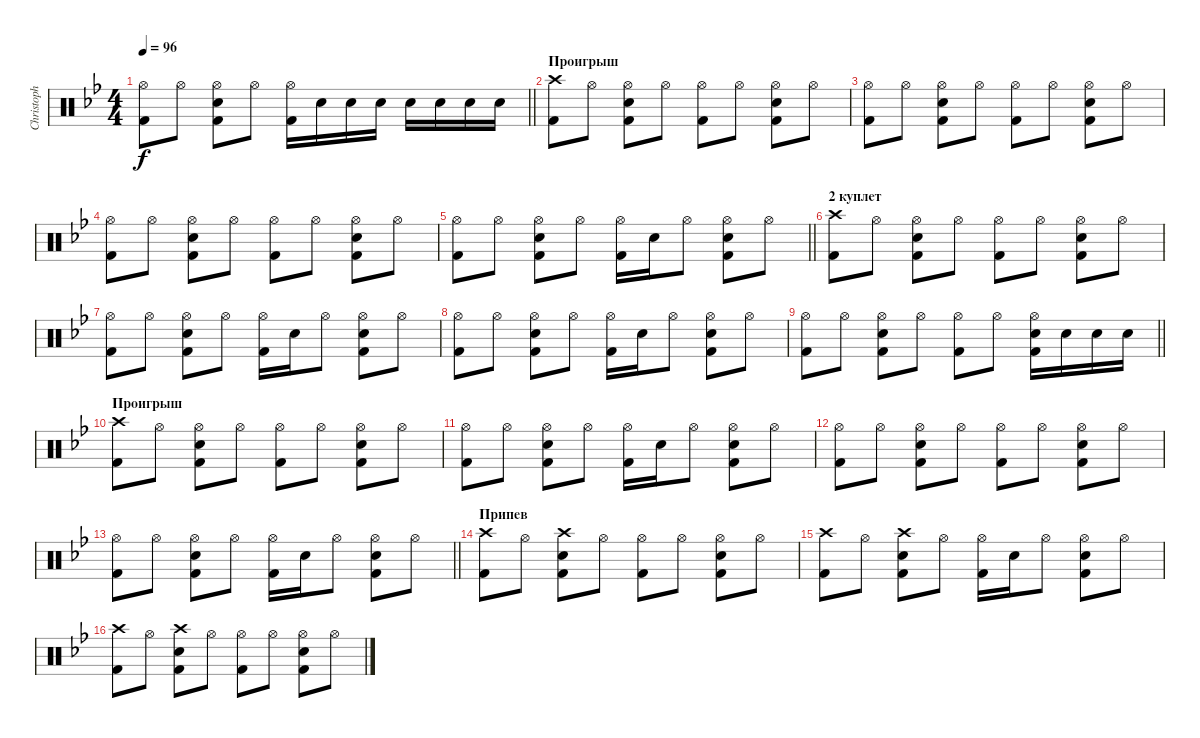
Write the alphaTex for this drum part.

\track ("Christoph Doom Schneider" "Christoph ") {instrument percussion}
\staff {score}
\articulation defaults
\ts (4 4)
\tempo 96
\clef neutral
\barLineRight lightlight
\ks bb
("Hi-Hat (open)" "Kick (hit) 2").8{dy f} "Hi-Hat (open)".8 ("Snare (hit) 2" "Hi-Hat (open)" "Kick (hit) 2").8 "Hi-Hat (open)".8 ("Hi-Hat (open)" "Kick (hit) 2").16 "Snare (hit) 2".16 "Snare (hit) 2".16 "Snare (hit) 2".16 "Snare (hit) 2".16 "Snare (hit) 2".16 "Snare (hit) 2".16 "Snare (hit) 2".16 |
\section ("" "Проигрыш")
("Crash high (hit)" "Kick (hit) 2").8 "Hi-Hat (open)".8 ("Snare (hit) 2" "Hi-Hat (open)" "Kick (hit) 2").8 "Hi-Hat (open)".8 ("Hi-Hat (open)" "Kick (hit) 2").8 "Hi-Hat (open)".8 ("Snare (hit) 2" "Hi-Hat (open)" "Kick (hit) 2").8 "Hi-Hat (open)".8 |
("Hi-Hat (open)" "Kick (hit) 2").8 "Hi-Hat (open)".8 ("Snare (hit) 2" "Hi-Hat (open)" "Kick (hit) 2").8 "Hi-Hat (open)".8 ("Hi-Hat (open)" "Kick (hit) 2").8 "Hi-Hat (open)".8 ("Snare (hit) 2" "Hi-Hat (open)" "Kick (hit) 2").8 "Hi-Hat (open)".8 |
("Hi-Hat (open)" "Kick (hit) 2").8 "Hi-Hat (open)".8 ("Snare (hit) 2" "Hi-Hat (open)" "Kick (hit) 2").8 "Hi-Hat (open)".8 ("Hi-Hat (open)" "Kick (hit) 2").8 "Hi-Hat (open)".8 ("Snare (hit) 2" "Hi-Hat (open)" "Kick (hit) 2").8 "Hi-Hat (open)".8 |
\barLineRight lightlight
("Hi-Hat (open)" "Kick (hit) 2").8 "Hi-Hat (open)".8 ("Snare (hit) 2" "Hi-Hat (open)" "Kick (hit) 2").8 "Hi-Hat (open)".8 ("Hi-Hat (open)" "Kick (hit) 2").16 "Snare (hit) 2".16 "Hi-Hat (open)".8 ("Snare (hit) 2" "Hi-Hat (open)" "Kick (hit) 2").8 "Hi-Hat (open)".8 |
\section ("" "2 куплет")
("Crash high (hit)" "Kick (hit) 2").8 "Hi-Hat (open)".8 ("Snare (hit) 2" "Hi-Hat (open)" "Kick (hit) 2").8 "Hi-Hat (open)".8 ("Hi-Hat (open)" "Kick (hit) 2").8 "Hi-Hat (open)".8 ("Snare (hit) 2" "Hi-Hat (open)" "Kick (hit) 2").8 "Hi-Hat (open)".8 |
("Hi-Hat (open)" "Kick (hit) 2").8 "Hi-Hat (open)".8 ("Snare (hit) 2" "Hi-Hat (open)" "Kick (hit) 2").8 "Hi-Hat (open)".8 ("Hi-Hat (open)" "Kick (hit) 2").16 "Snare (hit) 2".16 "Hi-Hat (open)".8 ("Snare (hit) 2" "Hi-Hat (open)" "Kick (hit) 2").8 "Hi-Hat (open)".8 |
("Hi-Hat (open)" "Kick (hit) 2").8 "Hi-Hat (open)".8 ("Snare (hit) 2" "Hi-Hat (open)" "Kick (hit) 2").8 "Hi-Hat (open)".8 ("Hi-Hat (open)" "Kick (hit) 2").16 "Snare (hit) 2".16 "Hi-Hat (open)".8 ("Snare (hit) 2" "Hi-Hat (open)" "Kick (hit) 2").8 "Hi-Hat (open)".8 |
\barLineRight lightlight
("Hi-Hat (open)" "Kick (hit) 2").8 "Hi-Hat (open)".8 ("Snare (hit) 2" "Hi-Hat (open)" "Kick (hit) 2").8 "Hi-Hat (open)".8 ("Hi-Hat (open)" "Kick (hit) 2").8 "Hi-Hat (open)".8 ("Snare (hit) 2" "Hi-Hat (open)" "Kick (hit) 2").16 "Snare (hit) 2".16 "Snare (hit) 2".16 "Snare (hit) 2".16 |
\section ("" "Проигрыш")
("Crash high (hit)" "Kick (hit) 2").8 "Hi-Hat (open)".8 ("Snare (hit) 2" "Hi-Hat (open)" "Kick (hit) 2").8 "Hi-Hat (open)".8 ("Hi-Hat (open)" "Kick (hit) 2").8 "Hi-Hat (open)".8 ("Snare (hit) 2" "Hi-Hat (open)" "Kick (hit) 2").8 "Hi-Hat (open)".8 |
("Hi-Hat (open)" "Kick (hit) 2").8 "Hi-Hat (open)".8 ("Snare (hit) 2" "Hi-Hat (open)" "Kick (hit) 2").8 "Hi-Hat (open)".8 ("Hi-Hat (open)" "Kick (hit) 2").16 "Snare (hit) 2".16 "Hi-Hat (open)".8 ("Snare (hit) 2" "Hi-Hat (open)" "Kick (hit) 2").8 "Hi-Hat (open)".8 |
("Hi-Hat (open)" "Kick (hit) 2").8 "Hi-Hat (open)".8 ("Snare (hit) 2" "Hi-Hat (open)" "Kick (hit) 2").8 "Hi-Hat (open)".8 ("Hi-Hat (open)" "Kick (hit) 2").8 "Hi-Hat (open)".8 ("Snare (hit) 2" "Hi-Hat (open)" "Kick (hit) 2").8 "Hi-Hat (open)".8 |
\barLineRight lightlight
("Hi-Hat (open)" "Kick (hit) 2").8 "Hi-Hat (open)".8 ("Snare (hit) 2" "Hi-Hat (open)" "Kick (hit) 2").8 "Hi-Hat (open)".8 ("Hi-Hat (open)" "Kick (hit) 2").16 "Snare (hit) 2".16 "Hi-Hat (open)".8 ("Snare (hit) 2" "Hi-Hat (open)" "Kick (hit) 2").8 "Hi-Hat (open)".8 |
\section ("" "Припев")
("Crash high (hit)" "Kick (hit) 2").8 "Hi-Hat (open)".8 ("Snare (hit) 2" "Kick (hit) 2" "Crash high (hit)").8 "Hi-Hat (open)".8 ("Hi-Hat (open)" "Kick (hit) 2").8 "Hi-Hat (open)".8 ("Snare (hit) 2" "Hi-Hat (open)" "Kick (hit) 2").8 "Hi-Hat (open)".8 |
("Crash high (hit)" "Kick (hit) 2").8 "Hi-Hat (open)".8 ("Snare (hit) 2" "Kick (hit) 2" "Crash high (hit)").8 "Hi-Hat (open)".8 ("Hi-Hat (open)" "Kick (hit) 2").16 "Snare (hit) 2".16 "Hi-Hat (open)".8 ("Snare (hit) 2" "Hi-Hat (open)" "Kick (hit) 2").8 "Hi-Hat (open)".8 |
("Crash high (hit)" "Kick (hit) 2").8 "Hi-Hat (open)".8 ("Snare (hit) 2" "Kick (hit) 2" "Crash high (hit)").8 "Hi-Hat (open)".8 ("Hi-Hat (open)" "Kick (hit) 2").8 "Hi-Hat (open)".8 ("Snare (hit) 2" "Hi-Hat (open)" "Kick (hit) 2").8 "Hi-Hat (open)".8
